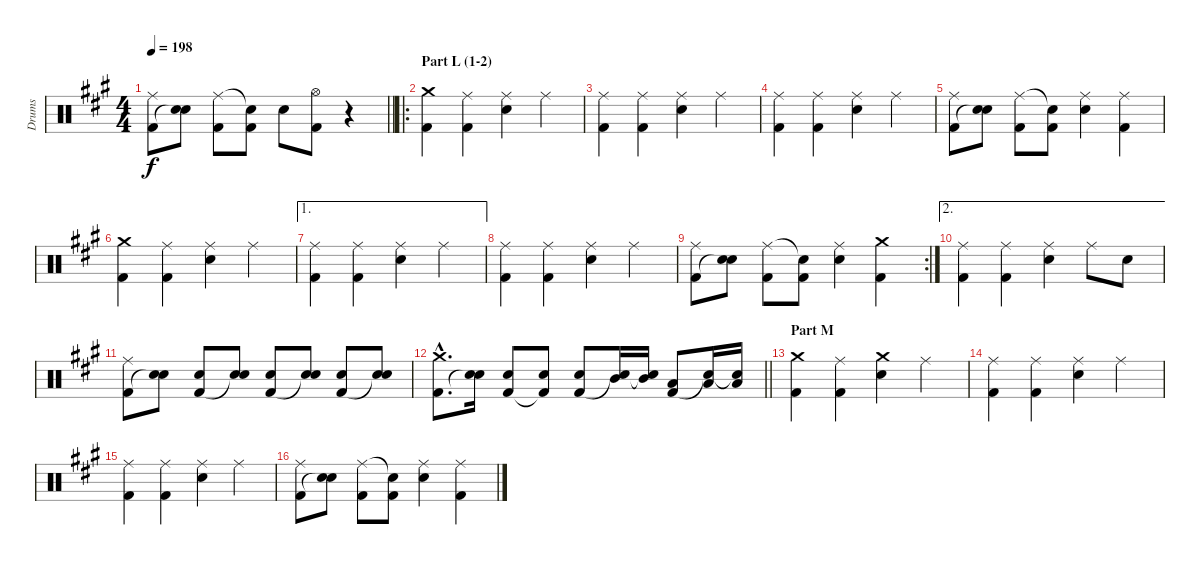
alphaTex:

\track ("Drums" "Drums") {instrument percussion}
\staff {score}
\articulation defaults
\ts (4 4)
\tempo 198
\clef neutral
\barLineRight lightlight
\ks a
("Ride (middle)" "Kick (hit) 2").8{dy f} ("Electric Snare (hit)" "Snare (hit)"{t}).8 ("Ride (middle)" "Kick (hit) 2").8 ("Snare (hit)"{t} "Kick (hit) 2").8 "Electric Snare (hit)".8 ("Hi-Hat (open)" "Kick (hit) 2").8 r.4 |
\ro
\section ("" "Part L (1-2)")
("Crash medium (hit)" "Kick (hit) 2").4 ("Ride (middle)" "Kick (hit) 2").4 ("Ride (middle)" "Electric Snare (hit)").4 "Ride (middle)".4 |
("Ride (middle)" "Kick (hit) 2").4 ("Ride (middle)" "Kick (hit) 2").4 ("Ride (middle)" "Electric Snare (hit)").4 "Ride (middle)".4 |
("Ride (middle)" "Kick (hit) 2").4 ("Ride (middle)" "Kick (hit) 2").4 ("Ride (middle)" "Electric Snare (hit)").4 "Ride (middle)".4 |
("Ride (middle)" "Kick (hit) 2").8 ("Electric Snare (hit)" "Snare (hit)"{t}).8 ("Ride (middle)" "Kick (hit) 2").8 ("Snare (hit)"{t} "Kick (hit) 2").8 ("Ride (middle)" "Electric Snare (hit)").4 ("Ride (middle)" "Kick (hit) 2").4 |
("Crash medium (hit)" "Kick (hit) 2").4 ("Ride (middle)" "Kick (hit) 2").4 ("Ride (middle)" "Electric Snare (hit)").4 "Ride (middle)".4 |
\ae 1
("Ride (middle)" "Kick (hit) 2").4 ("Ride (middle)" "Kick (hit) 2").4 ("Ride (middle)" "Electric Snare (hit)").4 "Ride (middle)".4 |
("Ride (middle)" "Kick (hit) 2").4 ("Ride (middle)" "Kick (hit) 2").4 ("Ride (middle)" "Electric Snare (hit)").4 "Ride (middle)".4 |
\rc 2
("Ride (middle)" "Kick (hit) 2").8 ("Electric Snare (hit)" "Snare (hit)"{t}).8 ("Ride (middle)" "Kick (hit) 2").8 ("Snare (hit)"{t} "Kick (hit) 2").8 ("Ride (middle)" "Electric Snare (hit)").4 ("Crash medium (hit)" "Kick (hit) 2").4 |
\ae 2
("Ride (middle)" "Kick (hit) 2").4 ("Ride (middle)" "Kick (hit) 2").4 ("Ride (middle)" "Electric Snare (hit)").4 "Ride (middle)".8 "Electric Snare (hit)".8 |
("Ride (middle)" "Kick (hit) 2").8 ("Electric Snare (hit)" "Snare (hit)"{t}).8 ("Electric Snare (hit)" "Kick (hit) 2").8 ("Electric Snare (hit)" "Snare (hit)"{t}).8 ("Electric Snare (hit)" "Kick (hit) 2").8 ("Electric Snare (hit)" "Snare (hit)"{t}).8 ("Electric Snare (hit)" "Kick (hit) 2").8 ("Electric Snare (hit)" "Snare (hit)"{t}).8 |
\barLineRight lightlight
("Crash medium (hit)"{hac} "Kick (hit) 2"{hac}).8{d} ("Electric Snare (hit)" "Snare (hit)"{t}).16 ("Electric Snare (hit)" "Kick (hit) 2").8 ("Electric Snare (hit)" "Kick (hit) 2"{t}).8 ("Electric Snare (hit)" "Kick (hit) 2").8 ("Mid Tom (hit)" "Snare (hit)"{t}).16 ("Mid Tom (hit)" "Snare (hit)"{t}).16 ("Low Tom (hit)" "Kick (hit) 2").8 ("Low Floor Tom (hit)" "Snare (hit)"{t}).16 ("Low Floor Tom (hit)" "Snare (hit)"{t}).16 |
\section ("" "Part M")
("Crash medium (hit)" "Kick (hit) 2").4 ("Ride (middle)" "Kick (hit) 2").4 ("Crash medium (hit)" "Electric Snare (hit)").4 "Ride (middle)".4 |
("Ride (middle)" "Kick (hit) 2").4 ("Ride (middle)" "Kick (hit) 2").4 ("Ride (middle)" "Electric Snare (hit)").4 "Ride (middle)".4 |
("Ride (middle)" "Kick (hit) 2").4 ("Ride (middle)" "Kick (hit) 2").4 ("Ride (middle)" "Electric Snare (hit)").4 "Ride (middle)".4 |
("Ride (middle)" "Kick (hit) 2").8 ("Electric Snare (hit)" "Snare (hit)"{t}).8 ("Ride (middle)" "Kick (hit) 2").8 ("Snare (hit)"{t} "Kick (hit) 2").8 ("Ride (middle)" "Electric Snare (hit)").4 ("Ride (middle)" "Kick (hit) 2").4
